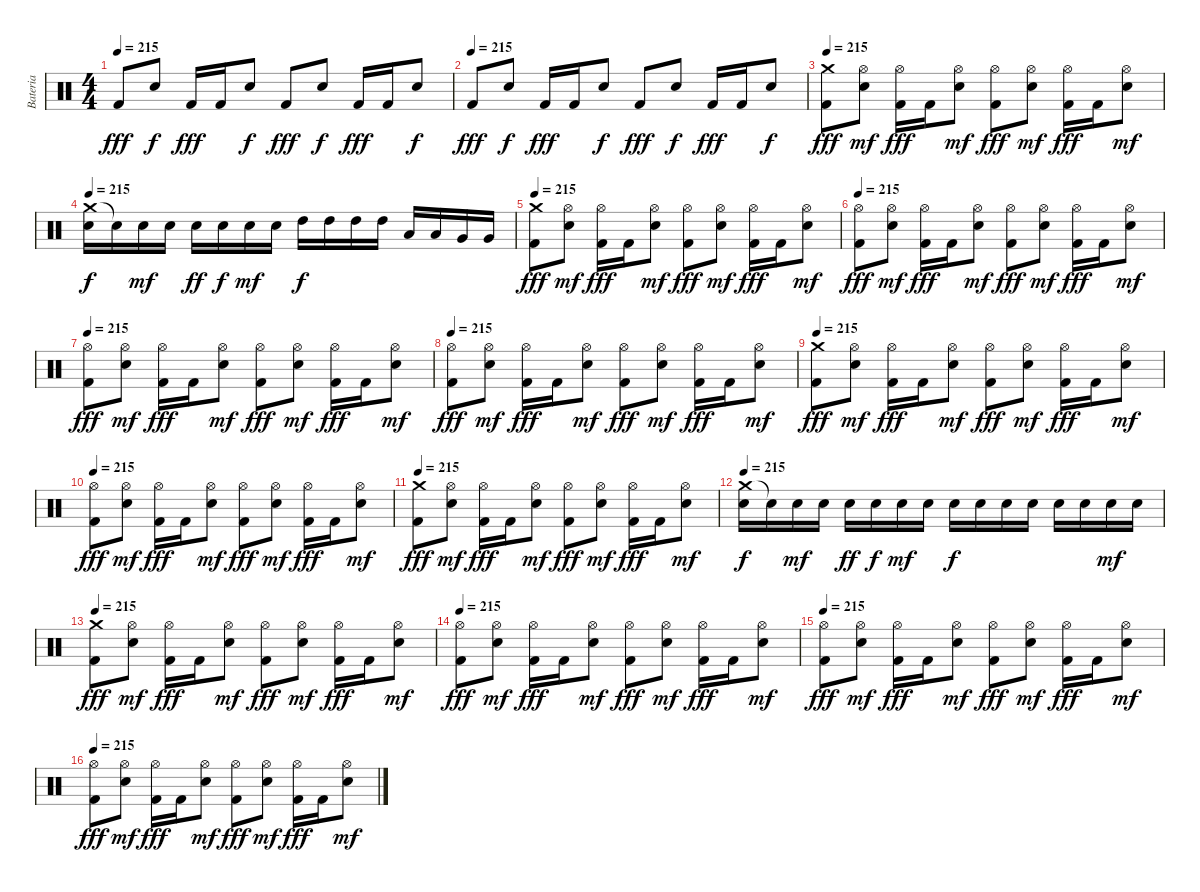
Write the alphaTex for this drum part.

\track ("Bateria" "Bateria") {instrument percussion}
\staff {score}
\articulation defaults
\ts (4 4)
\tempo 215
\clef neutral
\ks c "Kick (hit) 2".8{dy fff} "Electric Snare (hit)".8{dy f} "Kick (hit) 2".16{dy fff} "Kick (hit) 2".16 "Electric Snare (hit)".8{dy f} "Kick (hit) 2".8{dy fff} "Electric Snare (hit)".8{dy f} "Kick (hit) 2".16{dy fff} "Kick (hit) 2".16 "Electric Snare (hit)".8{dy f}
|
\tempo (215)
"Kick (hit) 2".8{dy fff} "Electric Snare (hit)".8{dy f} "Kick (hit) 2".16{dy fff} "Kick (hit) 2".16 "Electric Snare (hit)".8{dy f} "Kick (hit) 2".8{dy fff} "Electric Snare (hit)".8{dy f} "Kick (hit) 2".16{dy fff} "Kick (hit) 2".16 "Electric Snare (hit)".8{dy f} |
\tempo 215
("Crash medium (hit)" "Kick (hit) 2").8{dy fff} ("Hi-Hat (open)" "Electric Snare (hit)").8{dy mf} ("Hi-Hat (open)" "Kick (hit) 2").16{dy fff} "Kick (hit) 2".16 ("Hi-Hat (open)" "Electric Snare (hit)").8{dy mf} ("Hi-Hat (open)" "Kick (hit) 2").8{dy fff} ("Hi-Hat (open)" "Electric Snare (hit)").8{dy mf} ("Hi-Hat (open)" "Kick (hit) 2").16{dy fff} "Kick (hit) 2".16 ("Hi-Hat (open)" "Electric Snare (hit)").8{dy mf} |
\tempo 215
("Crash medium (hit)" "Electric Snare (hit)").16{dy f} "Snare (hit)"{t}.16 "Electric Snare (hit)".16{dy mf} "Electric Snare (hit)".16 "Electric Snare (hit)".16{dy ff} "Electric Snare (hit)".16{dy f} "Electric Snare (hit)".16{dy mf} "Electric Snare (hit)".16 "High Tom (hit)".16{dy f} "High Tom (hit)".16 "High Tom (hit)".16 "High Tom (hit)".16 "Low Tom (hit)".16 "Low Tom (hit)".16 "Very Low Tom (hit)".16 "Very Low Tom (hit)".16 |
\tempo 215
("Crash medium (hit)" "Kick (hit) 2").8{dy fff} ("Hi-Hat (open)" "Electric Snare (hit)").8{dy mf} ("Hi-Hat (open)" "Kick (hit) 2").16{dy fff} "Kick (hit) 2".16 ("Hi-Hat (open)" "Electric Snare (hit)").8{dy mf} ("Hi-Hat (open)" "Kick (hit) 2").8{dy fff} ("Hi-Hat (open)" "Electric Snare (hit)").8{dy mf} ("Hi-Hat (open)" "Kick (hit) 2").16{dy fff} "Kick (hit) 2".16 ("Hi-Hat (open)" "Electric Snare (hit)").8{dy mf} |
\tempo 215
("Hi-Hat (open)" "Kick (hit) 2").8{dy fff} ("Hi-Hat (open)" "Electric Snare (hit)").8{dy mf} ("Hi-Hat (open)" "Kick (hit) 2").16{dy fff} "Kick (hit) 2".16 ("Hi-Hat (open)" "Electric Snare (hit)").8{dy mf} ("Hi-Hat (open)" "Kick (hit) 2").8{dy fff} ("Hi-Hat (open)" "Electric Snare (hit)").8{dy mf} ("Hi-Hat (open)" "Kick (hit) 2").16{dy fff} "Kick (hit) 2".16 ("Hi-Hat (open)" "Electric Snare (hit)").8{dy mf} |
\tempo 215
("Hi-Hat (open)" "Kick (hit) 2").8{dy fff} ("Hi-Hat (open)" "Electric Snare (hit)").8{dy mf} ("Hi-Hat (open)" "Kick (hit) 2").16{dy fff} "Kick (hit) 2".16 ("Hi-Hat (open)" "Electric Snare (hit)").8{dy mf} ("Hi-Hat (open)" "Kick (hit) 2").8{dy fff} ("Hi-Hat (open)" "Electric Snare (hit)").8{dy mf} ("Hi-Hat (open)" "Kick (hit) 2").16{dy fff} "Kick (hit) 2".16 ("Hi-Hat (open)" "Electric Snare (hit)").8{dy mf} |
\tempo 215
("Hi-Hat (open)" "Kick (hit) 2").8{dy fff} ("Hi-Hat (open)" "Electric Snare (hit)").8{dy mf} ("Hi-Hat (open)" "Kick (hit) 2").16{dy fff} "Kick (hit) 2".16 ("Hi-Hat (open)" "Electric Snare (hit)").8{dy mf} ("Hi-Hat (open)" "Kick (hit) 2").8{dy fff} ("Hi-Hat (open)" "Electric Snare (hit)").8{dy mf} ("Hi-Hat (open)" "Kick (hit) 2").16{dy fff} "Kick (hit) 2".16 ("Hi-Hat (open)" "Electric Snare (hit)").8{dy mf} |
\tempo 215
("Crash medium (hit)" "Kick (hit) 2").8{dy fff} ("Hi-Hat (open)" "Electric Snare (hit)").8{dy mf} ("Hi-Hat (open)" "Kick (hit) 2").16{dy fff} "Kick (hit) 2".16 ("Hi-Hat (open)" "Electric Snare (hit)").8{dy mf} ("Hi-Hat (open)" "Kick (hit) 2").8{dy fff} ("Hi-Hat (open)" "Electric Snare (hit)").8{dy mf} ("Hi-Hat (open)" "Kick (hit) 2").16{dy fff} "Kick (hit) 2".16 ("Hi-Hat (open)" "Electric Snare (hit)").8{dy mf} |
\tempo 215
("Hi-Hat (open)" "Kick (hit) 2").8{dy fff} ("Hi-Hat (open)" "Electric Snare (hit)").8{dy mf} ("Hi-Hat (open)" "Kick (hit) 2").16{dy fff} "Kick (hit) 2".16 ("Hi-Hat (open)" "Electric Snare (hit)").8{dy mf} ("Hi-Hat (open)" "Kick (hit) 2").8{dy fff} ("Hi-Hat (open)" "Electric Snare (hit)").8{dy mf} ("Hi-Hat (open)" "Kick (hit) 2").16{dy fff} "Kick (hit) 2".16 ("Hi-Hat (open)" "Electric Snare (hit)").8{dy mf} |
\tempo 215
("Crash medium (hit)" "Kick (hit) 2").8{dy fff} ("Hi-Hat (open)" "Electric Snare (hit)").8{dy mf} ("Hi-Hat (open)" "Kick (hit) 2").16{dy fff} "Kick (hit) 2".16 ("Hi-Hat (open)" "Electric Snare (hit)").8{dy mf} ("Hi-Hat (open)" "Kick (hit) 2").8{dy fff} ("Hi-Hat (open)" "Electric Snare (hit)").8{dy mf} ("Hi-Hat (open)" "Kick (hit) 2").16{dy fff} "Kick (hit) 2".16 ("Hi-Hat (open)" "Electric Snare (hit)").8{dy mf} |
\tempo 215
("Crash medium (hit)" "Electric Snare (hit)").16{dy f} "Snare (hit)"{t}.16 "Electric Snare (hit)".16{dy mf} "Electric Snare (hit)".16 "Electric Snare (hit)".16{dy ff} "Electric Snare (hit)".16{dy f} "Electric Snare (hit)".16{dy mf} "Electric Snare (hit)".16 "Electric Snare (hit)".16{dy f} "Electric Snare (hit)".16 "Electric Snare (hit)".16 "Electric Snare (hit)".16 "Electric Snare (hit)".16 "Electric Snare (hit)".16 "Electric Snare (hit)".16{dy mf} "Electric Snare (hit)".16 |
\tempo 215
("Crash medium (hit)" "Kick (hit) 2").8{dy fff} ("Hi-Hat (open)" "Electric Snare (hit)").8{dy mf} ("Hi-Hat (open)" "Kick (hit) 2").16{dy fff} "Kick (hit) 2".16 ("Hi-Hat (open)" "Electric Snare (hit)").8{dy mf} ("Hi-Hat (open)" "Kick (hit) 2").8{dy fff} ("Hi-Hat (open)" "Electric Snare (hit)").8{dy mf} ("Hi-Hat (open)" "Kick (hit) 2").16{dy fff} "Kick (hit) 2".16 ("Hi-Hat (open)" "Electric Snare (hit)").8{dy mf} |
\tempo 215
("Hi-Hat (open)" "Kick (hit) 2").8{dy fff} ("Hi-Hat (open)" "Electric Snare (hit)").8{dy mf} ("Hi-Hat (open)" "Kick (hit) 2").16{dy fff} "Kick (hit) 2".16 ("Hi-Hat (open)" "Electric Snare (hit)").8{dy mf} ("Hi-Hat (open)" "Kick (hit) 2").8{dy fff} ("Hi-Hat (open)" "Electric Snare (hit)").8{dy mf} ("Hi-Hat (open)" "Kick (hit) 2").16{dy fff} "Kick (hit) 2".16 ("Hi-Hat (open)" "Electric Snare (hit)").8{dy mf} |
\tempo 215
("Hi-Hat (open)" "Kick (hit) 2").8{dy fff} ("Hi-Hat (open)" "Electric Snare (hit)").8{dy mf} ("Hi-Hat (open)" "Kick (hit) 2").16{dy fff} "Kick (hit) 2".16 ("Hi-Hat (open)" "Electric Snare (hit)").8{dy mf} ("Hi-Hat (open)" "Kick (hit) 2").8{dy fff} ("Hi-Hat (open)" "Electric Snare (hit)").8{dy mf} ("Hi-Hat (open)" "Kick (hit) 2").16{dy fff} "Kick (hit) 2".16 ("Hi-Hat (open)" "Electric Snare (hit)").8{dy mf} |
\tempo 215
("Hi-Hat (open)" "Kick (hit) 2").8{dy fff} ("Hi-Hat (open)" "Electric Snare (hit)").8{dy mf} ("Hi-Hat (open)" "Kick (hit) 2").16{dy fff} "Kick (hit) 2".16 ("Hi-Hat (open)" "Electric Snare (hit)").8{dy mf} ("Hi-Hat (open)" "Kick (hit) 2").8{dy fff} ("Hi-Hat (open)" "Electric Snare (hit)").8{dy mf} ("Hi-Hat (open)" "Kick (hit) 2").16{dy fff} "Kick (hit) 2".16 ("Hi-Hat (open)" "Electric Snare (hit)").8{dy mf}
